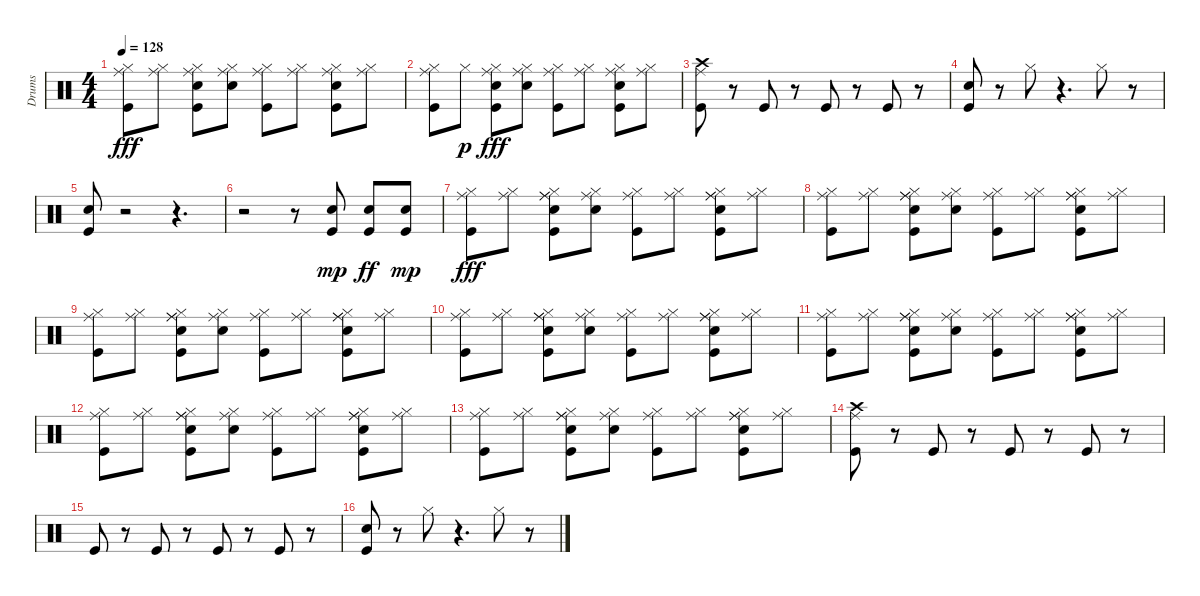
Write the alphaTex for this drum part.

\track ("Drums               " "Drums     ") {instrument percussion}
\staff {score}
\articulation defaults
\ts (4 4)
\tempo 128
\clef neutral
\ks c
("Hi-Hat (closed)" "Kick (hit)" "Ride (middle)").8{dy fff} ("Hi-Hat (closed)" "Ride (middle)").8 ("Hi-Hat (closed)" "Kick (hit)" "Snare (hit) 2" "Ride (middle)").8 ("Hi-Hat (closed)" "Snare (hit) 2" "Ride (middle)").8 ("Hi-Hat (closed)" "Kick (hit)" "Ride (middle)").8 ("Hi-Hat (closed)" "Ride (middle)").8 ("Hi-Hat (closed)" "Kick (hit)" "Snare (hit) 2" "Ride (middle)").8 ("Hi-Hat (closed)" "Ride (middle)").8 |
("Hi-Hat (closed)" "Kick (hit)" "Ride (middle)").8 "Hi-Hat (closed)".8{dy p} ("Hi-Hat (closed)" "Kick (hit)" "Snare (hit) 2" "Ride (middle)").8{dy fff} ("Hi-Hat (closed)" "Snare (hit) 2" "Ride (middle)").8 ("Hi-Hat (closed)" "Kick (hit)" "Ride (middle)").8 ("Hi-Hat (closed)" "Ride (middle)").8 ("Hi-Hat (closed)" "Kick (hit)" "Snare (hit) 2" "Ride (middle)").8 ("Hi-Hat (closed)" "Ride (middle)").8 |
("Kick (hit)" "Ride (middle)" "Crash high (hit)").8 r.8 "Kick (hit)".8 r.8 "Kick (hit)".8 r.8 "Kick (hit)".8 r.8 |
("Electric Snare (hit)" "Kick (hit)").8 r.8 "Hi-Hat (closed)".8 r.4{d} "Hi-Hat (closed)".8 r.8 |
("Electric Snare (hit)" "Kick (hit)").8 r.2 r.4{d} |
r.2 r.8 ("Electric Snare (hit)" "Kick (hit)").8{dy mp} ("Electric Snare (hit)" "Kick (hit)").8{dy ff} ("Electric Snare (hit)" "Kick (hit)").8{dy mp} |
("Ride (middle)" "Hi-Hat (closed)" "Kick (hit)").8{dy fff} ("Ride (middle)" "Hi-Hat (closed)").8 ("Ride (middle)" "Hi-Hat (closed)" "Ride (middle)" "Electric Snare (hit)" "Kick (hit)").8 ("Ride (middle)" "Hi-Hat (closed)" "Electric Snare (hit)").8 ("Ride (middle)" "Hi-Hat (closed)" "Kick (hit)").8 ("Ride (middle)" "Hi-Hat (closed)").8 ("Ride (middle)" "Hi-Hat (closed)" "Ride (middle)" "Electric Snare (hit)" "Kick (hit)").8 ("Ride (middle)" "Hi-Hat (closed)").8 |
("Ride (middle)" "Hi-Hat (closed)" "Kick (hit)").8 ("Ride (middle)" "Hi-Hat (closed)").8 ("Ride (middle)" "Hi-Hat (closed)" "Ride (middle)" "Electric Snare (hit)" "Kick (hit)").8 ("Ride (middle)" "Hi-Hat (closed)" "Electric Snare (hit)").8 ("Ride (middle)" "Hi-Hat (closed)" "Kick (hit)").8 ("Ride (middle)" "Hi-Hat (closed)").8 ("Ride (middle)" "Hi-Hat (closed)" "Ride (middle)" "Electric Snare (hit)" "Kick (hit)").8 ("Ride (middle)" "Hi-Hat (closed)").8 |
("Ride (middle)" "Hi-Hat (closed)" "Kick (hit)").8 ("Ride (middle)" "Hi-Hat (closed)").8 ("Ride (middle)" "Hi-Hat (closed)" "Ride (middle)" "Electric Snare (hit)" "Kick (hit)").8 ("Ride (middle)" "Hi-Hat (closed)" "Electric Snare (hit)").8 ("Ride (middle)" "Hi-Hat (closed)" "Kick (hit)").8 ("Ride (middle)" "Hi-Hat (closed)").8 ("Ride (middle)" "Hi-Hat (closed)" "Ride (middle)" "Electric Snare (hit)" "Kick (hit)").8 ("Ride (middle)" "Hi-Hat (closed)").8 |
("Ride (middle)" "Hi-Hat (closed)" "Kick (hit)").8 ("Ride (middle)" "Hi-Hat (closed)").8 ("Ride (middle)" "Hi-Hat (closed)" "Ride (middle)" "Electric Snare (hit)" "Kick (hit)").8 ("Ride (middle)" "Hi-Hat (closed)" "Electric Snare (hit)").8 ("Ride (middle)" "Hi-Hat (closed)" "Kick (hit)").8 ("Ride (middle)" "Hi-Hat (closed)").8 ("Ride (middle)" "Hi-Hat (closed)" "Ride (middle)" "Electric Snare (hit)" "Kick (hit)").8 ("Ride (middle)" "Hi-Hat (closed)").8 |
("Ride (middle)" "Hi-Hat (closed)" "Kick (hit)").8 ("Ride (middle)" "Hi-Hat (closed)").8 ("Ride (middle)" "Hi-Hat (closed)" "Ride (middle)" "Electric Snare (hit)" "Kick (hit)").8 ("Ride (middle)" "Hi-Hat (closed)" "Electric Snare (hit)").8 ("Ride (middle)" "Hi-Hat (closed)" "Kick (hit)").8 ("Ride (middle)" "Hi-Hat (closed)").8 ("Ride (middle)" "Hi-Hat (closed)" "Ride (middle)" "Electric Snare (hit)" "Kick (hit)").8 ("Ride (middle)" "Hi-Hat (closed)").8 |
("Ride (middle)" "Hi-Hat (closed)" "Kick (hit)").8 ("Ride (middle)" "Hi-Hat (closed)").8 ("Ride (middle)" "Hi-Hat (closed)" "Ride (middle)" "Electric Snare (hit)" "Kick (hit)").8 ("Ride (middle)" "Hi-Hat (closed)" "Electric Snare (hit)").8 ("Ride (middle)" "Hi-Hat (closed)" "Kick (hit)").8 ("Ride (middle)" "Hi-Hat (closed)").8 ("Ride (middle)" "Hi-Hat (closed)" "Ride (middle)" "Electric Snare (hit)" "Kick (hit)").8 ("Ride (middle)" "Hi-Hat (closed)").8 |
("Ride (middle)" "Hi-Hat (closed)" "Kick (hit)").8 ("Ride (middle)" "Hi-Hat (closed)").8 ("Ride (middle)" "Hi-Hat (closed)" "Ride (middle)" "Electric Snare (hit)" "Kick (hit)").8 ("Ride (middle)" "Hi-Hat (closed)" "Electric Snare (hit)").8 ("Ride (middle)" "Hi-Hat (closed)" "Kick (hit)").8 ("Ride (middle)" "Hi-Hat (closed)").8 ("Ride (middle)" "Hi-Hat (closed)" "Ride (middle)" "Electric Snare (hit)" "Kick (hit)").8 ("Ride (middle)" "Hi-Hat (closed)").8 |
("Crash high (hit)" "Ride (middle)" "Kick (hit)").8 r.8 "Kick (hit)".8 r.8 "Kick (hit)".8 r.8 "Kick (hit)".8 r.8 |
"Kick (hit)".8 r.8 "Kick (hit)".8 r.8 "Kick (hit)".8 r.8 "Kick (hit)".8 r.8 |
("Electric Snare (hit)" "Kick (hit)").8 r.8 "Hi-Hat (closed)".8 r.4{d} "Hi-Hat (closed)".8 r.8
